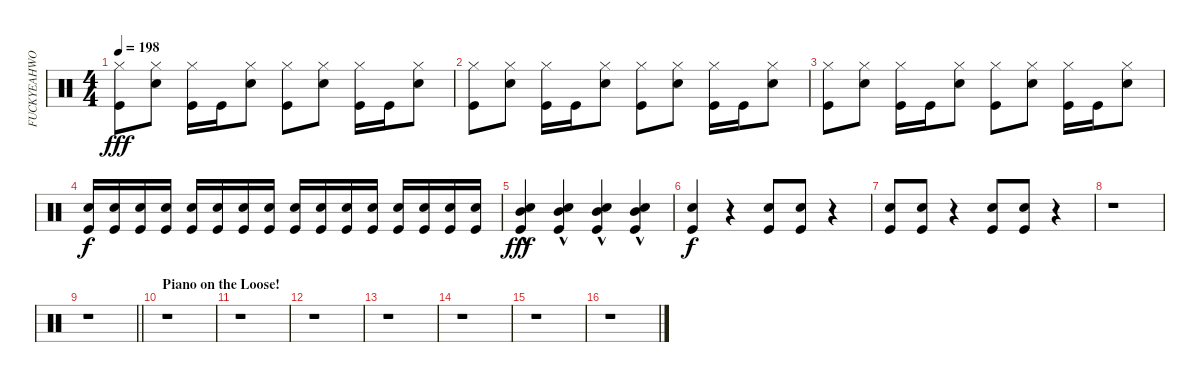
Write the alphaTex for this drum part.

\track ("FUCKYEAHWOOTDAVEMACKINTOSH!(Percussion)" "FUCKYEAHWO") {instrument percussion}
\staff {score}
\articulation defaults
\ts (4 4)
\tempo 198
\clef neutral
\ks c
("Kick (hit)" "Hi-Hat (closed)").8{dy fff} ("Snare (hit) 2" "Hi-Hat (closed)").8 ("Kick (hit)" "Hi-Hat (closed)").16 "Kick (hit)".16 ("Hi-Hat (closed)" "Snare (hit) 2").8 ("Kick (hit)" "Hi-Hat (closed)").8 ("Snare (hit) 2" "Hi-Hat (closed)").8 ("Kick (hit)" "Hi-Hat (closed)").16 "Kick (hit)".16 ("Snare (hit) 2" "Hi-Hat (closed)").8 |
("Kick (hit)" "Hi-Hat (closed)").8 ("Snare (hit) 2" "Hi-Hat (closed)").8 ("Kick (hit)" "Hi-Hat (closed)").16 "Kick (hit)".16 ("Hi-Hat (closed)" "Snare (hit) 2").8 ("Kick (hit)" "Hi-Hat (closed)").8 ("Snare (hit) 2" "Hi-Hat (closed)").8 ("Kick (hit)" "Hi-Hat (closed)").16 "Kick (hit)".16 ("Snare (hit) 2" "Hi-Hat (closed)").8 |
("Kick (hit)" "Hi-Hat (closed)").8 ("Snare (hit) 2" "Hi-Hat (closed)").8 ("Kick (hit)" "Hi-Hat (closed)").16 "Kick (hit)".16 ("Hi-Hat (closed)" "Snare (hit) 2").8 ("Kick (hit)" "Hi-Hat (closed)").8 ("Snare (hit) 2" "Hi-Hat (closed)").8 ("Kick (hit)" "Hi-Hat (closed)").16 "Kick (hit)".16 ("Snare (hit) 2" "Hi-Hat (closed)").8 |
("Snare (hit) 2" "Kick (hit)").16{dy f} ("Snare (hit) 2" "Kick (hit)").16 ("Snare (hit) 2" "Kick (hit)").16 ("Snare (hit) 2" "Kick (hit)").16 ("Kick (hit)" "Snare (hit) 2").16 ("Snare (hit) 2" "Kick (hit)").16 ("Snare (hit) 2" "Kick (hit)").16 ("Snare (hit) 2" "Kick (hit)").16 ("Snare (hit) 2" "Kick (hit)").16 ("Snare (hit) 2" "Kick (hit)").16 ("Snare (hit) 2" "Kick (hit)").16 ("Snare (hit) 2" "Kick (hit)").16 ("Snare (hit) 2" "Kick (hit)").16 ("Snare (hit) 2" "Kick (hit)").16 ("Snare (hit) 2" "Kick (hit)").16 ("Snare (hit) 2" "Kick (hit)").16 |
("Kick (hit)" "Snare (hit) 2"{hac} "Mid Tom (hit)").4{dy fff} ("Kick (hit)" "Snare (hit) 2"{hac} "Mid Tom (hit)").4 ("Kick (hit)" "Snare (hit) 2"{hac} "Mid Tom (hit)").4 ("Kick (hit)" "Snare (hit) 2"{hac} "Mid Tom (hit)").4 |
("Snare (hit) 2" "Kick (hit)").4{dy f} r.4 ("Kick (hit)" "Snare (hit) 2").8 ("Kick (hit)" "Snare (hit) 2").8 r.4 |
("Kick (hit)" "Snare (hit) 2").8 ("Snare (hit) 2" "Kick (hit)").8 r.4 ("Snare (hit) 2" "Kick (hit)").8 ("Snare (hit) 2" "Kick (hit)").8 r.4 |
r.1 |
\barLineRight lightlight
r.1 |
\section ("" "Piano on the Loose!")
r.1 |
r.1 |
r.1 |
r.1 |
r.1 |
r.1 |
r.1
